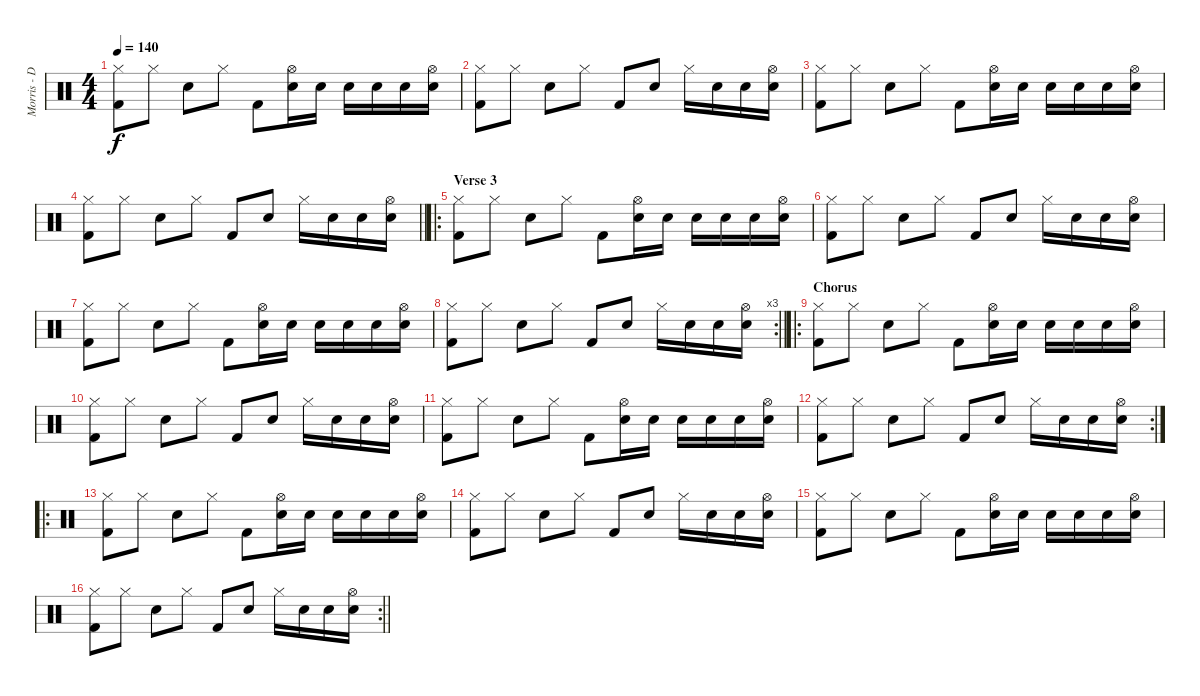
\track ("Morris - Drums" "Morris - D") {instrument percussion}
\staff {score}
\articulation defaults
\ts (4 4)
\tempo 140
\clef neutral
\ks c
("Kick (hit) 2" "Hi-Hat (closed)").8{dy f} "Hi-Hat (closed)".8 "Snare (hit) 2".8 "Hi-Hat (closed)".8 "Kick (hit) 2".8 ("Snare (hit) 2" "Hi-Hat (open)").16 "Snare (hit) 2".16 "Snare (hit) 2".16 "Snare (hit) 2".16 "Snare (hit) 2".16 ("Snare (hit) 2" "Hi-Hat (open)").16 |
("Kick (hit) 2" "Hi-Hat (closed)").8 "Hi-Hat (closed)".8 "Snare (hit) 2".8 "Hi-Hat (closed)".8 "Kick (hit) 2".8 "Snare (hit) 2".8 "Hi-Hat (closed)".16 "Snare (hit) 2".16 "Snare (hit) 2".16 ("Snare (hit) 2" "Hi-Hat (open)").16 |
("Kick (hit) 2" "Hi-Hat (closed)").8 "Hi-Hat (closed)".8 "Snare (hit) 2".8 "Hi-Hat (closed)".8 "Kick (hit) 2".8 ("Snare (hit) 2" "Hi-Hat (open)").16 "Snare (hit) 2".16 "Snare (hit) 2".16 "Snare (hit) 2".16 "Snare (hit) 2".16 ("Snare (hit) 2" "Hi-Hat (open)").16 |
\barLineRight lightlight
("Kick (hit) 2" "Hi-Hat (closed)").8 "Hi-Hat (closed)".8 "Snare (hit) 2".8 "Hi-Hat (closed)".8 "Kick (hit) 2".8 "Snare (hit) 2".8 "Hi-Hat (closed)".16 "Snare (hit) 2".16 "Snare (hit) 2".16 ("Snare (hit) 2" "Hi-Hat (open)").16 |
\ro
\section ("" "Verse 3")
("Kick (hit) 2" "Hi-Hat (closed)").8 "Hi-Hat (closed)".8 "Snare (hit) 2".8 "Hi-Hat (closed)".8 "Kick (hit) 2".8 ("Snare (hit) 2" "Hi-Hat (open)").16 "Snare (hit) 2".16 "Snare (hit) 2".16 "Snare (hit) 2".16 "Snare (hit) 2".16 ("Snare (hit) 2" "Hi-Hat (open)").16 |
("Kick (hit) 2" "Hi-Hat (closed)").8 "Hi-Hat (closed)".8 "Snare (hit) 2".8 "Hi-Hat (closed)".8 "Kick (hit) 2".8 "Snare (hit) 2".8 "Hi-Hat (closed)".16 "Snare (hit) 2".16 "Snare (hit) 2".16 ("Snare (hit) 2" "Hi-Hat (open)").16 |
("Kick (hit) 2" "Hi-Hat (closed)").8 "Hi-Hat (closed)".8 "Snare (hit) 2".8 "Hi-Hat (closed)".8 "Kick (hit) 2".8 ("Snare (hit) 2" "Hi-Hat (open)").16 "Snare (hit) 2".16 "Snare (hit) 2".16 "Snare (hit) 2".16 "Snare (hit) 2".16 ("Snare (hit) 2" "Hi-Hat (open)").16 |
\rc 3
\barLineRight lightlight
("Kick (hit) 2" "Hi-Hat (closed)").8 "Hi-Hat (closed)".8 "Snare (hit) 2".8 "Hi-Hat (closed)".8 "Kick (hit) 2".8 "Snare (hit) 2".8 "Hi-Hat (closed)".16 "Snare (hit) 2".16 "Snare (hit) 2".16 ("Snare (hit) 2" "Hi-Hat (open)").16 |
\ro
\section ("" "Chorus")
("Kick (hit) 2" "Hi-Hat (closed)").8 "Hi-Hat (closed)".8 "Snare (hit) 2".8 "Hi-Hat (closed)".8 "Kick (hit) 2".8 ("Snare (hit) 2" "Hi-Hat (open)").16 "Snare (hit) 2".16 "Snare (hit) 2".16 "Snare (hit) 2".16 "Snare (hit) 2".16 ("Snare (hit) 2" "Hi-Hat (open)").16 |
("Kick (hit) 2" "Hi-Hat (closed)").8 "Hi-Hat (closed)".8 "Snare (hit) 2".8 "Hi-Hat (closed)".8 "Kick (hit) 2".8 "Snare (hit) 2".8 "Hi-Hat (closed)".16 "Snare (hit) 2".16 "Snare (hit) 2".16 ("Snare (hit) 2" "Hi-Hat (open)").16 |
("Kick (hit) 2" "Hi-Hat (closed)").8 "Hi-Hat (closed)".8 "Snare (hit) 2".8 "Hi-Hat (closed)".8 "Kick (hit) 2".8 ("Snare (hit) 2" "Hi-Hat (open)").16 "Snare (hit) 2".16 "Snare (hit) 2".16 "Snare (hit) 2".16 "Snare (hit) 2".16 ("Snare (hit) 2" "Hi-Hat (open)").16 |
\rc 2
("Kick (hit) 2" "Hi-Hat (closed)").8 "Hi-Hat (closed)".8 "Snare (hit) 2".8 "Hi-Hat (closed)".8 "Kick (hit) 2".8 "Snare (hit) 2".8 "Hi-Hat (closed)".16 "Snare (hit) 2".16 "Snare (hit) 2".16 ("Snare (hit) 2" "Hi-Hat (open)").16 |
\ro
("Kick (hit) 2" "Hi-Hat (closed)").8 "Hi-Hat (closed)".8 "Snare (hit) 2".8 "Hi-Hat (closed)".8 "Kick (hit) 2".8 ("Snare (hit) 2" "Hi-Hat (open)").16 "Snare (hit) 2".16 "Snare (hit) 2".16 "Snare (hit) 2".16 "Snare (hit) 2".16 ("Snare (hit) 2" "Hi-Hat (open)").16 |
("Kick (hit) 2" "Hi-Hat (closed)").8 "Hi-Hat (closed)".8 "Snare (hit) 2".8 "Hi-Hat (closed)".8 "Kick (hit) 2".8 "Snare (hit) 2".8 "Hi-Hat (closed)".16 "Snare (hit) 2".16 "Snare (hit) 2".16 ("Snare (hit) 2" "Hi-Hat (open)").16 |
("Kick (hit) 2" "Hi-Hat (closed)").8 "Hi-Hat (closed)".8 "Snare (hit) 2".8 "Hi-Hat (closed)".8 "Kick (hit) 2".8 ("Snare (hit) 2" "Hi-Hat (open)").16 "Snare (hit) 2".16 "Snare (hit) 2".16 "Snare (hit) 2".16 "Snare (hit) 2".16 ("Snare (hit) 2" "Hi-Hat (open)").16 |
\rc 2
\barLineRight lightlight
("Kick (hit) 2" "Hi-Hat (closed)").8 "Hi-Hat (closed)".8 "Snare (hit) 2".8 "Hi-Hat (closed)".8 "Kick (hit) 2".8 "Snare (hit) 2".8 "Hi-Hat (closed)".16 "Snare (hit) 2".16 "Snare (hit) 2".16 ("Snare (hit) 2" "Hi-Hat (open)").16
